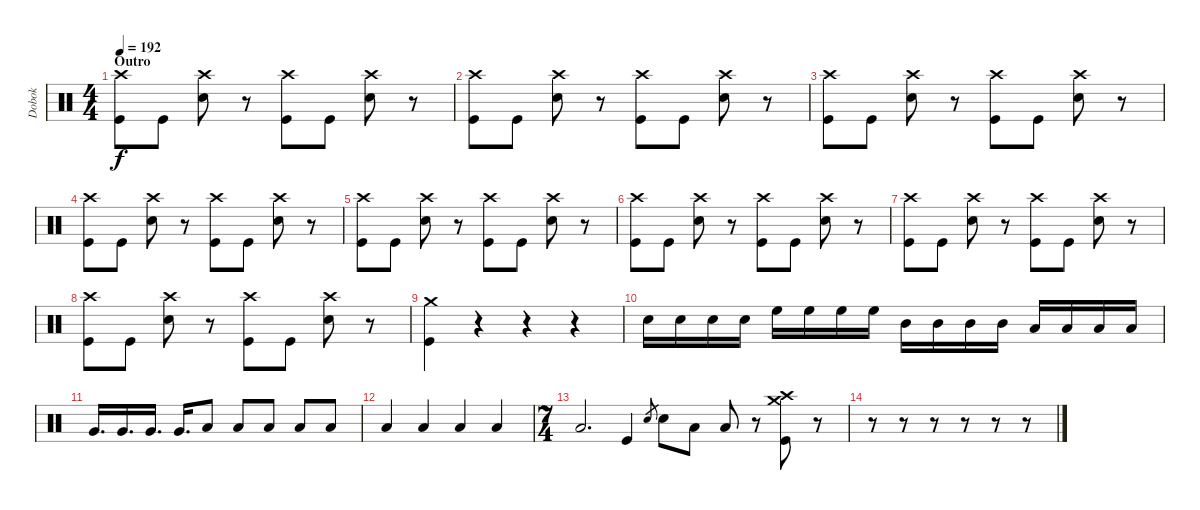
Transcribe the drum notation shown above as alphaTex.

\track ("Dobok" "Dobok") {instrument percussion}
\staff {score}
\articulation defaults
\ts (4 4)
\section ("" "Outro")
\tempo 192
\clef neutral
\ks c
("Crash high (hit)" "Kick (hit)").8{dy f} "Kick (hit)".8 ("Crash high (hit)" "Electric Snare (hit)").8 r.8 ("Crash high (hit)" "Kick (hit)").8 "Kick (hit)".8 ("Crash high (hit)" "Electric Snare (hit)").8 r.8 |
("Crash high (hit)" "Kick (hit)").8 "Kick (hit)".8 ("Crash high (hit)" "Electric Snare (hit)").8 r.8 ("Crash high (hit)" "Kick (hit)").8 "Kick (hit)".8 ("Crash high (hit)" "Electric Snare (hit)").8 r.8 |
("Crash high (hit)" "Kick (hit)").8 "Kick (hit)".8 ("Crash high (hit)" "Electric Snare (hit)").8 r.8 ("Crash high (hit)" "Kick (hit)").8 "Kick (hit)".8 ("Crash high (hit)" "Electric Snare (hit)").8 r.8 |
("Crash high (hit)" "Kick (hit)").8 "Kick (hit)".8 ("Crash high (hit)" "Electric Snare (hit)").8 r.8 ("Crash high (hit)" "Kick (hit)").8 "Kick (hit)".8 ("Crash high (hit)" "Electric Snare (hit)").8 r.8 |
("Crash high (hit)" "Kick (hit)").8 "Kick (hit)".8 ("Crash high (hit)" "Electric Snare (hit)").8 r.8 ("Crash high (hit)" "Kick (hit)").8 "Kick (hit)".8 ("Crash high (hit)" "Electric Snare (hit)").8 r.8 |
("Crash high (hit)" "Kick (hit)").8 "Kick (hit)".8 ("Crash high (hit)" "Electric Snare (hit)").8 r.8 ("Crash high (hit)" "Kick (hit)").8 "Kick (hit)".8 ("Crash high (hit)" "Electric Snare (hit)").8 r.8 |
("Crash high (hit)" "Kick (hit)").8 "Kick (hit)".8 ("Crash high (hit)" "Electric Snare (hit)").8 r.8 ("Crash high (hit)" "Kick (hit)").8 "Kick (hit)".8 ("Crash high (hit)" "Electric Snare (hit)").8 r.8 |
("Crash high (hit)" "Kick (hit)").8 "Kick (hit)".8 ("Crash high (hit)" "Electric Snare (hit)").8 r.8 ("Crash high (hit)" "Kick (hit)").8 "Kick (hit)".8 ("Crash high (hit)" "Electric Snare (hit)").8 r.8 |
("Crash medium (hit)" "Kick (hit)").4 r.4 r.4 r.4 |
"Electric Snare (hit)".16 "Electric Snare (hit)".16 "Electric Snare (hit)".16 "Electric Snare (hit)".16 "High Floor Tom (hit)".16 "High Floor Tom (hit)".16 "High Floor Tom (hit)".16 "High Floor Tom (hit)".16 "Mid Tom (hit)".16 "Mid Tom (hit)".16 "Mid Tom (hit)".16 "Mid Tom (hit)".16 "Low Tom (hit)".16 "Low Tom (hit)".16 "Low Tom (hit)".16 "Low Tom (hit)".16 |
"Very Low Tom (hit)".16{d} "Very Low Tom (hit)".16{d} "Very Low Tom (hit)".16{d} "Very Low Tom (hit)".16{d} "Low Floor Tom (hit)".8 "Low Floor Tom (hit)".8 "Low Floor Tom (hit)".8 "Low Floor Tom (hit)".8 "Low Floor Tom (hit)".8 |
"Low Floor Tom (hit)".4 "Low Floor Tom (hit)".4 "Low Floor Tom (hit)".4 "Low Floor Tom (hit)".4 |
\ts (7 4)
"Low Floor Tom (hit)".2{d} "Kick (hit)".4 "Electric Snare (hit)".8{gr} "Electric Snare (hit)".8 "Low Floor Tom (hit)".8 "Low Floor Tom (hit)".8 r.8 ("Crash high (hit)" "Crash medium (hit)" "Kick (hit)").8 r.8 |
r.8 r.8 r.8 r.8 r.8 r.8
